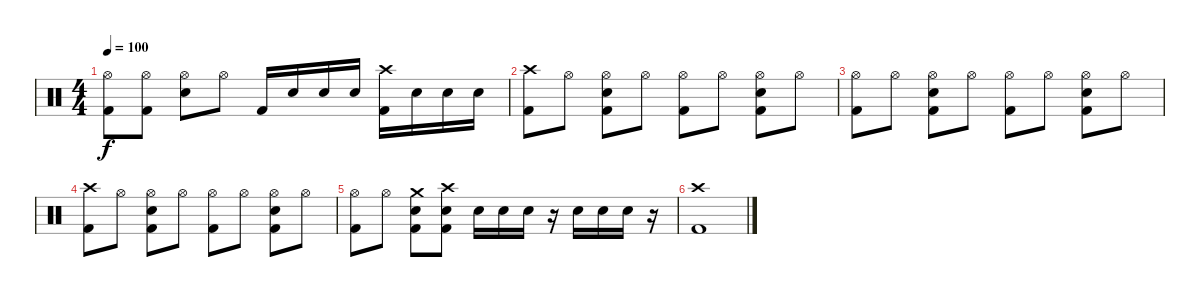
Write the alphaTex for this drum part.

\track "" {instrument percussion}
\staff {score}
\articulation defaults
\ts (4 4)
\tempo 100
\clef neutral
\ks c
("Hi-Hat (open)" "Kick (hit) 2").8{dy f} ("Hi-Hat (open)" "Kick (hit) 2").8 ("Hi-Hat (open)" "Electric Snare (hit)").8 "Hi-Hat (open)".8 "Kick (hit) 2".16 "Electric Snare (hit)".16 "Electric Snare (hit)".16 "Electric Snare (hit)".16 ("Crash high (hit)" "Kick (hit) 2").16 "Electric Snare (hit)".16 "Electric Snare (hit)".16 "Electric Snare (hit)".16 |
("Crash high (hit)" "Kick (hit) 2").8 "Hi-Hat (open)".8 ("Hi-Hat (open)" "Electric Snare (hit)" "Kick (hit) 2").8 "Hi-Hat (open)".8 ("Hi-Hat (open)" "Kick (hit) 2").8 "Hi-Hat (open)".8 ("Hi-Hat (open)" "Electric Snare (hit)" "Kick (hit) 2").8 "Hi-Hat (open)".8 |
("Hi-Hat (open)" "Kick (hit) 2").8 "Hi-Hat (open)".8 ("Hi-Hat (open)" "Electric Snare (hit)" "Kick (hit) 2").8 "Hi-Hat (open)".8 ("Hi-Hat (open)" "Kick (hit) 2").8 "Hi-Hat (open)".8 ("Hi-Hat (open)" "Electric Snare (hit)" "Kick (hit) 2").8 "Hi-Hat (open)".8 |
("Crash high (hit)" "Kick (hit) 2").8 "Hi-Hat (open)".8 ("Hi-Hat (open)" "Electric Snare (hit)" "Kick (hit) 2").8 "Hi-Hat (open)".8 ("Hi-Hat (open)" "Kick (hit) 2").8 "Hi-Hat (open)".8 ("Hi-Hat (open)" "Electric Snare (hit)" "Kick (hit) 2").8 "Hi-Hat (open)".8 |
("Hi-Hat (open)" "Kick (hit) 2").8 "Hi-Hat (open)".8 ("Crash medium (hit)" "Kick (hit) 2" "Electric Snare (hit)").8 ("Crash high (hit)" "Kick (hit) 2" "Electric Snare (hit)").8 "Electric Snare (hit)".16 "Electric Snare (hit)".16 "Electric Snare (hit)".16 r.16 "Electric Snare (hit)".16 "Electric Snare (hit)".16 "Electric Snare (hit)".16 r.16 |
("Crash high (hit)" "Kick (hit) 2").1
